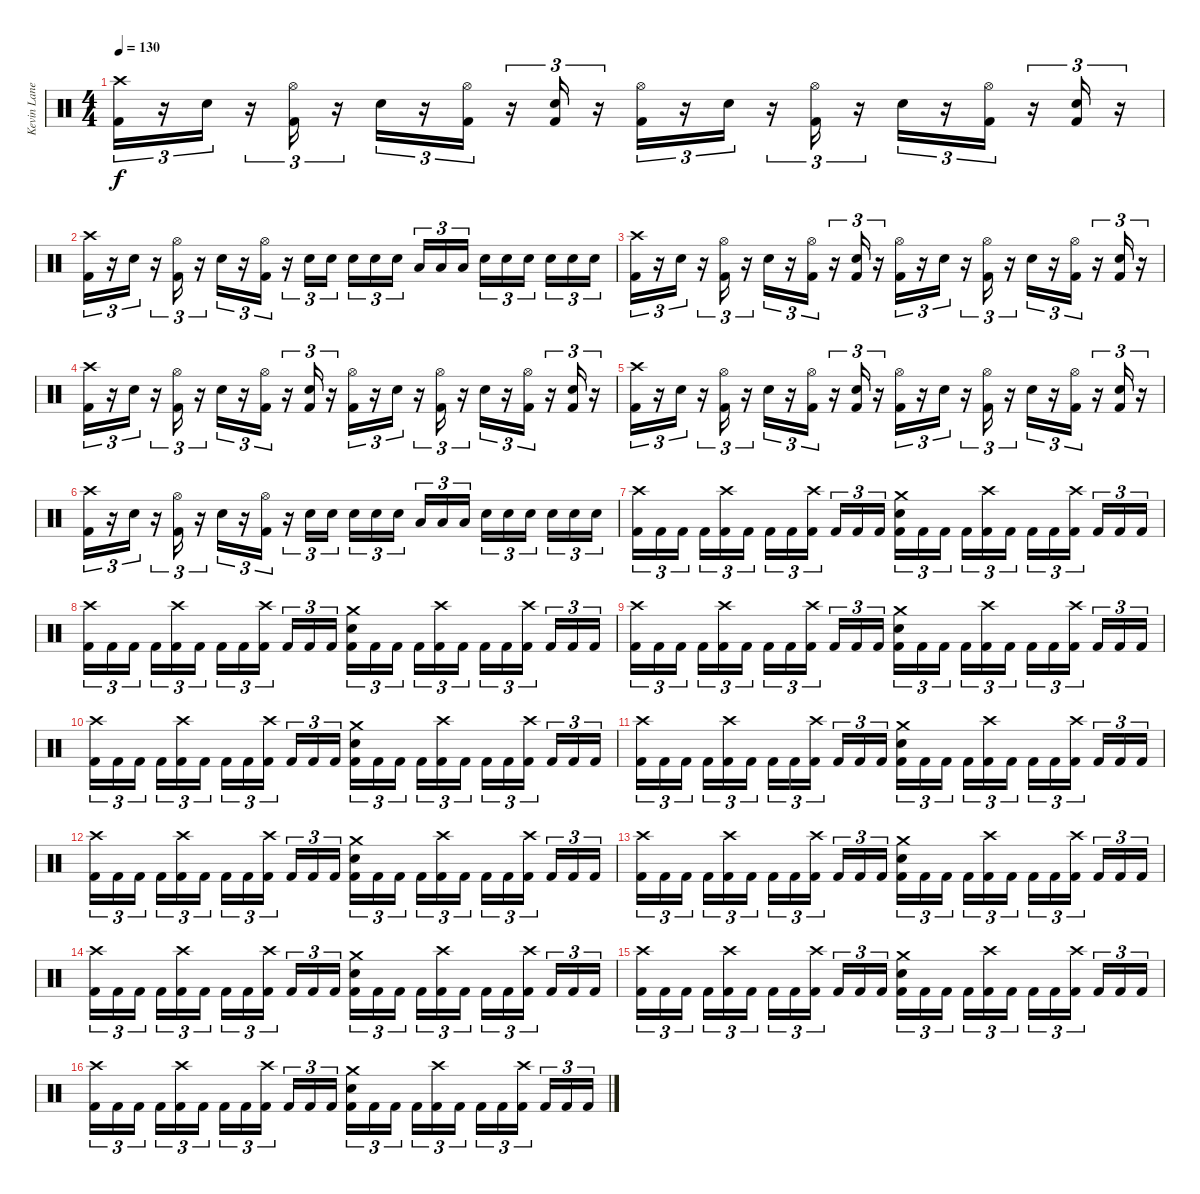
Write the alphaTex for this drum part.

\track ("Kevin Lane" "Kevin Lane") {instrument percussion}
\staff {score}
\articulation defaults
\ts (4 4)
\tempo 130
\clef neutral
\ks c
("Crash high (hit)" "Kick (hit) 2").16{tu (3 2) dy f} r.16{tu (3 2)} "Electric Snare (hit)".16{tu (3 2)} r.16{tu (3 2)} ("Hi-Hat (open)" "Kick (hit) 2").16{tu (3 2)} r.16{tu (3 2)} "Electric Snare (hit)".16{tu (3 2)} r.16{tu (3 2)} ("Hi-Hat (open)" "Kick (hit) 2").16{tu (3 2)} r.16{tu (3 2)} ("Electric Snare (hit)" "Kick (hit) 2").16{tu (3 2)} r.16{tu (3 2)} ("Hi-Hat (open)" "Kick (hit) 2").16{tu (3 2)} r.16{tu (3 2)} "Electric Snare (hit)".16{tu (3 2)} r.16{tu (3 2)} ("Hi-Hat (open)" "Kick (hit) 2").16{tu (3 2)} r.16{tu (3 2)} "Electric Snare (hit)".16{tu (3 2)} r.16{tu (3 2)} ("Hi-Hat (open)" "Kick (hit) 2").16{tu (3 2)} r.16{tu (3 2)} ("Electric Snare (hit)" "Kick (hit) 2").16{tu (3 2)} r.16{tu (3 2)} |
("Crash high (hit)" "Kick (hit) 2").16{tu (3 2)} r.16{tu (3 2)} "Electric Snare (hit)".16{tu (3 2)} r.16{tu (3 2)} ("Hi-Hat (open)" "Kick (hit) 2").16{tu (3 2)} r.16{tu (3 2)} "Electric Snare (hit)".16{tu (3 2)} r.16{tu (3 2)} ("Hi-Hat (open)" "Kick (hit) 2").16{tu (3 2)} r.16{tu (3 2)} "Electric Snare (hit)".16{tu (3 2)} "Electric Snare (hit)".16{tu (3 2)} "Electric Snare (hit)".16{tu (3 2)} "Electric Snare (hit)".16{tu (3 2)} "Electric Snare (hit)".16{tu (3 2) beam splitsecondary} "Low Tom (hit)".16{tu (3 2)} "Low Tom (hit)".16{tu (3 2)} "Low Tom (hit)".16{tu (3 2)} "Electric Snare (hit)".16{tu (3 2)} "Electric Snare (hit)".16{tu (3 2)} "Electric Snare (hit)".16{tu (3 2) beam splitsecondary} "Electric Snare (hit)".16{tu (3 2)} "Electric Snare (hit)".16{tu (3 2)} "Electric Snare (hit)".16{tu (3 2)} |
("Crash high (hit)" "Kick (hit) 2").16{tu (3 2)} r.16{tu (3 2)} "Electric Snare (hit)".16{tu (3 2)} r.16{tu (3 2)} ("Hi-Hat (open)" "Kick (hit) 2").16{tu (3 2)} r.16{tu (3 2)} "Electric Snare (hit)".16{tu (3 2)} r.16{tu (3 2)} ("Hi-Hat (open)" "Kick (hit) 2").16{tu (3 2)} r.16{tu (3 2)} ("Electric Snare (hit)" "Kick (hit) 2").16{tu (3 2)} r.16{tu (3 2)} ("Hi-Hat (open)" "Kick (hit) 2").16{tu (3 2)} r.16{tu (3 2)} "Electric Snare (hit)".16{tu (3 2)} r.16{tu (3 2)} ("Hi-Hat (open)" "Kick (hit) 2").16{tu (3 2)} r.16{tu (3 2)} "Electric Snare (hit)".16{tu (3 2)} r.16{tu (3 2)} ("Hi-Hat (open)" "Kick (hit) 2").16{tu (3 2)} r.16{tu (3 2)} ("Electric Snare (hit)" "Kick (hit) 2").16{tu (3 2)} r.16{tu (3 2)} |
("Crash high (hit)" "Kick (hit) 2").16{tu (3 2)} r.16{tu (3 2)} "Electric Snare (hit)".16{tu (3 2)} r.16{tu (3 2)} ("Hi-Hat (open)" "Kick (hit) 2").16{tu (3 2)} r.16{tu (3 2)} "Electric Snare (hit)".16{tu (3 2)} r.16{tu (3 2)} ("Hi-Hat (open)" "Kick (hit) 2").16{tu (3 2)} r.16{tu (3 2)} ("Electric Snare (hit)" "Kick (hit) 2").16{tu (3 2)} r.16{tu (3 2)} ("Hi-Hat (open)" "Kick (hit) 2").16{tu (3 2)} r.16{tu (3 2)} "Electric Snare (hit)".16{tu (3 2)} r.16{tu (3 2)} ("Hi-Hat (open)" "Kick (hit) 2").16{tu (3 2)} r.16{tu (3 2)} "Electric Snare (hit)".16{tu (3 2)} r.16{tu (3 2)} ("Hi-Hat (open)" "Kick (hit) 2").16{tu (3 2)} r.16{tu (3 2)} ("Electric Snare (hit)" "Kick (hit) 2").16{tu (3 2)} r.16{tu (3 2)} |
("Crash high (hit)" "Kick (hit) 2").16{tu (3 2)} r.16{tu (3 2)} "Electric Snare (hit)".16{tu (3 2)} r.16{tu (3 2)} ("Hi-Hat (open)" "Kick (hit) 2").16{tu (3 2)} r.16{tu (3 2)} "Electric Snare (hit)".16{tu (3 2)} r.16{tu (3 2)} ("Hi-Hat (open)" "Kick (hit) 2").16{tu (3 2)} r.16{tu (3 2)} ("Electric Snare (hit)" "Kick (hit) 2").16{tu (3 2)} r.16{tu (3 2)} ("Hi-Hat (open)" "Kick (hit) 2").16{tu (3 2)} r.16{tu (3 2)} "Electric Snare (hit)".16{tu (3 2)} r.16{tu (3 2)} ("Hi-Hat (open)" "Kick (hit) 2").16{tu (3 2)} r.16{tu (3 2)} "Electric Snare (hit)".16{tu (3 2)} r.16{tu (3 2)} ("Hi-Hat (open)" "Kick (hit) 2").16{tu (3 2)} r.16{tu (3 2)} ("Electric Snare (hit)" "Kick (hit) 2").16{tu (3 2)} r.16{tu (3 2)} |
("Crash high (hit)" "Kick (hit) 2").16{tu (3 2)} r.16{tu (3 2)} "Electric Snare (hit)".16{tu (3 2)} r.16{tu (3 2)} ("Hi-Hat (open)" "Kick (hit) 2").16{tu (3 2)} r.16{tu (3 2)} "Electric Snare (hit)".16{tu (3 2)} r.16{tu (3 2)} ("Hi-Hat (open)" "Kick (hit) 2").16{tu (3 2)} r.16{tu (3 2)} "Electric Snare (hit)".16{tu (3 2)} "Electric Snare (hit)".16{tu (3 2)} "Electric Snare (hit)".16{tu (3 2)} "Electric Snare (hit)".16{tu (3 2)} "Electric Snare (hit)".16{tu (3 2) beam splitsecondary} "Low Tom (hit)".16{tu (3 2)} "Low Tom (hit)".16{tu (3 2)} "Low Tom (hit)".16{tu (3 2)} "Electric Snare (hit)".16{tu (3 2)} "Electric Snare (hit)".16{tu (3 2)} "Electric Snare (hit)".16{tu (3 2) beam splitsecondary} "Electric Snare (hit)".16{tu (3 2)} "Electric Snare (hit)".16{tu (3 2)} "Electric Snare (hit)".16{tu (3 2)} |
("Crash high (hit)" "Kick (hit) 2").16{tu (3 2)} "Kick (hit) 2".16{tu (3 2)} "Kick (hit) 2".16{tu (3 2) beam splitsecondary} "Kick (hit) 2".16{tu (3 2)} ("Crash high (hit)" "Kick (hit) 2").16{tu (3 2)} "Kick (hit) 2".16{tu (3 2)} "Kick (hit) 2".16{tu (3 2)} "Kick (hit) 2".16{tu (3 2)} ("Crash high (hit)" "Kick (hit) 2").16{tu (3 2) beam splitsecondary} "Kick (hit) 2".16{tu (3 2)} "Kick (hit) 2".16{tu (3 2)} "Kick (hit) 2".16{tu (3 2)} ("Crash medium (hit)" "Electric Snare (hit)" "Kick (hit) 2").16{tu (3 2)} "Kick (hit) 2".16{tu (3 2)} "Kick (hit) 2".16{tu (3 2) beam splitsecondary} "Kick (hit) 2".16{tu (3 2)} ("Crash high (hit)" "Kick (hit) 2").16{tu (3 2)} "Kick (hit) 2".16{tu (3 2)} "Kick (hit) 2".16{tu (3 2)} "Kick (hit) 2".16{tu (3 2)} ("Crash high (hit)" "Kick (hit) 2").16{tu (3 2) beam splitsecondary} "Kick (hit) 2".16{tu (3 2)} "Kick (hit) 2".16{tu (3 2)} "Kick (hit) 2".16{tu (3 2)} |
("Crash high (hit)" "Kick (hit) 2").16{tu (3 2)} "Kick (hit) 2".16{tu (3 2)} "Kick (hit) 2".16{tu (3 2) beam splitsecondary} "Kick (hit) 2".16{tu (3 2)} ("Crash high (hit)" "Kick (hit) 2").16{tu (3 2)} "Kick (hit) 2".16{tu (3 2)} "Kick (hit) 2".16{tu (3 2)} "Kick (hit) 2".16{tu (3 2)} ("Crash high (hit)" "Kick (hit) 2").16{tu (3 2) beam splitsecondary} "Kick (hit) 2".16{tu (3 2)} "Kick (hit) 2".16{tu (3 2)} "Kick (hit) 2".16{tu (3 2)} ("Crash medium (hit)" "Electric Snare (hit)" "Kick (hit) 2").16{tu (3 2)} "Kick (hit) 2".16{tu (3 2)} "Kick (hit) 2".16{tu (3 2) beam splitsecondary} "Kick (hit) 2".16{tu (3 2)} ("Crash high (hit)" "Kick (hit) 2").16{tu (3 2)} "Kick (hit) 2".16{tu (3 2)} "Kick (hit) 2".16{tu (3 2)} "Kick (hit) 2".16{tu (3 2)} ("Crash high (hit)" "Kick (hit) 2").16{tu (3 2) beam splitsecondary} "Kick (hit) 2".16{tu (3 2)} "Kick (hit) 2".16{tu (3 2)} "Kick (hit) 2".16{tu (3 2)} |
("Crash high (hit)" "Kick (hit) 2").16{tu (3 2)} "Kick (hit) 2".16{tu (3 2)} "Kick (hit) 2".16{tu (3 2) beam splitsecondary} "Kick (hit) 2".16{tu (3 2)} ("Crash high (hit)" "Kick (hit) 2").16{tu (3 2)} "Kick (hit) 2".16{tu (3 2)} "Kick (hit) 2".16{tu (3 2)} "Kick (hit) 2".16{tu (3 2)} ("Crash high (hit)" "Kick (hit) 2").16{tu (3 2) beam splitsecondary} "Kick (hit) 2".16{tu (3 2)} "Kick (hit) 2".16{tu (3 2)} "Kick (hit) 2".16{tu (3 2)} ("Crash medium (hit)" "Electric Snare (hit)" "Kick (hit) 2").16{tu (3 2)} "Kick (hit) 2".16{tu (3 2)} "Kick (hit) 2".16{tu (3 2) beam splitsecondary} "Kick (hit) 2".16{tu (3 2)} ("Crash high (hit)" "Kick (hit) 2").16{tu (3 2)} "Kick (hit) 2".16{tu (3 2)} "Kick (hit) 2".16{tu (3 2)} "Kick (hit) 2".16{tu (3 2)} ("Crash high (hit)" "Kick (hit) 2").16{tu (3 2) beam splitsecondary} "Kick (hit) 2".16{tu (3 2)} "Kick (hit) 2".16{tu (3 2)} "Kick (hit) 2".16{tu (3 2)} |
("Crash high (hit)" "Kick (hit) 2").16{tu (3 2)} "Kick (hit) 2".16{tu (3 2)} "Kick (hit) 2".16{tu (3 2) beam splitsecondary} "Kick (hit) 2".16{tu (3 2)} ("Crash high (hit)" "Kick (hit) 2").16{tu (3 2)} "Kick (hit) 2".16{tu (3 2)} "Kick (hit) 2".16{tu (3 2)} "Kick (hit) 2".16{tu (3 2)} ("Crash high (hit)" "Kick (hit) 2").16{tu (3 2) beam splitsecondary} "Kick (hit) 2".16{tu (3 2)} "Kick (hit) 2".16{tu (3 2)} "Kick (hit) 2".16{tu (3 2)} ("Crash medium (hit)" "Electric Snare (hit)" "Kick (hit) 2").16{tu (3 2)} "Kick (hit) 2".16{tu (3 2)} "Kick (hit) 2".16{tu (3 2) beam splitsecondary} "Kick (hit) 2".16{tu (3 2)} ("Crash high (hit)" "Kick (hit) 2").16{tu (3 2)} "Kick (hit) 2".16{tu (3 2)} "Kick (hit) 2".16{tu (3 2)} "Kick (hit) 2".16{tu (3 2)} ("Crash high (hit)" "Kick (hit) 2").16{tu (3 2) beam splitsecondary} "Kick (hit) 2".16{tu (3 2)} "Kick (hit) 2".16{tu (3 2)} "Kick (hit) 2".16{tu (3 2)} |
("Crash high (hit)" "Kick (hit) 2").16{tu (3 2) volume 12} "Kick (hit) 2".16{tu (3 2)} "Kick (hit) 2".16{tu (3 2) beam splitsecondary} "Kick (hit) 2".16{tu (3 2)} ("Crash high (hit)" "Kick (hit) 2").16{tu (3 2)} "Kick (hit) 2".16{tu (3 2)} "Kick (hit) 2".16{tu (3 2)} "Kick (hit) 2".16{tu (3 2)} ("Crash high (hit)" "Kick (hit) 2").16{tu (3 2) beam splitsecondary} "Kick (hit) 2".16{tu (3 2)} "Kick (hit) 2".16{tu (3 2)} "Kick (hit) 2".16{tu (3 2)} ("Crash medium (hit)" "Electric Snare (hit)" "Kick (hit) 2").16{tu (3 2)} "Kick (hit) 2".16{tu (3 2)} "Kick (hit) 2".16{tu (3 2) beam splitsecondary} "Kick (hit) 2".16{tu (3 2)} ("Crash high (hit)" "Kick (hit) 2").16{tu (3 2)} "Kick (hit) 2".16{tu (3 2)} "Kick (hit) 2".16{tu (3 2)} "Kick (hit) 2".16{tu (3 2)} ("Crash high (hit)" "Kick (hit) 2").16{tu (3 2) beam splitsecondary} "Kick (hit) 2".16{tu (3 2)} "Kick (hit) 2".16{tu (3 2)} "Kick (hit) 2".16{tu (3 2)} |
("Crash high (hit)" "Kick (hit) 2").16{tu (3 2)} "Kick (hit) 2".16{tu (3 2)} "Kick (hit) 2".16{tu (3 2) beam splitsecondary} "Kick (hit) 2".16{tu (3 2)} ("Crash high (hit)" "Kick (hit) 2").16{tu (3 2)} "Kick (hit) 2".16{tu (3 2)} "Kick (hit) 2".16{tu (3 2)} "Kick (hit) 2".16{tu (3 2)} ("Crash high (hit)" "Kick (hit) 2").16{tu (3 2) beam splitsecondary} "Kick (hit) 2".16{tu (3 2)} "Kick (hit) 2".16{tu (3 2)} "Kick (hit) 2".16{tu (3 2)} ("Crash medium (hit)" "Electric Snare (hit)" "Kick (hit) 2").16{tu (3 2)} "Kick (hit) 2".16{tu (3 2)} "Kick (hit) 2".16{tu (3 2) beam splitsecondary} "Kick (hit) 2".16{tu (3 2)} ("Crash high (hit)" "Kick (hit) 2").16{tu (3 2)} "Kick (hit) 2".16{tu (3 2)} "Kick (hit) 2".16{tu (3 2)} "Kick (hit) 2".16{tu (3 2)} ("Crash high (hit)" "Kick (hit) 2").16{tu (3 2) beam splitsecondary} "Kick (hit) 2".16{tu (3 2)} "Kick (hit) 2".16{tu (3 2)} "Kick (hit) 2".16{tu (3 2)} |
("Crash high (hit)" "Kick (hit) 2").16{tu (3 2)} "Kick (hit) 2".16{tu (3 2)} "Kick (hit) 2".16{tu (3 2) beam splitsecondary} "Kick (hit) 2".16{tu (3 2)} ("Crash high (hit)" "Kick (hit) 2").16{tu (3 2)} "Kick (hit) 2".16{tu (3 2)} "Kick (hit) 2".16{tu (3 2)} "Kick (hit) 2".16{tu (3 2)} ("Crash high (hit)" "Kick (hit) 2").16{tu (3 2) beam splitsecondary} "Kick (hit) 2".16{tu (3 2)} "Kick (hit) 2".16{tu (3 2)} "Kick (hit) 2".16{tu (3 2)} ("Crash medium (hit)" "Electric Snare (hit)" "Kick (hit) 2").16{tu (3 2)} "Kick (hit) 2".16{tu (3 2)} "Kick (hit) 2".16{tu (3 2) beam splitsecondary} "Kick (hit) 2".16{tu (3 2)} ("Crash high (hit)" "Kick (hit) 2").16{tu (3 2)} "Kick (hit) 2".16{tu (3 2)} "Kick (hit) 2".16{tu (3 2)} "Kick (hit) 2".16{tu (3 2)} ("Crash high (hit)" "Kick (hit) 2").16{tu (3 2) beam splitsecondary} "Kick (hit) 2".16{tu (3 2)} "Kick (hit) 2".16{tu (3 2)} "Kick (hit) 2".16{tu (3 2)} |
("Crash high (hit)" "Kick (hit) 2").16{tu (3 2)} "Kick (hit) 2".16{tu (3 2)} "Kick (hit) 2".16{tu (3 2) beam splitsecondary} "Kick (hit) 2".16{tu (3 2)} ("Crash high (hit)" "Kick (hit) 2").16{tu (3 2)} "Kick (hit) 2".16{tu (3 2)} "Kick (hit) 2".16{tu (3 2)} "Kick (hit) 2".16{tu (3 2)} ("Crash high (hit)" "Kick (hit) 2").16{tu (3 2) beam splitsecondary} "Kick (hit) 2".16{tu (3 2)} "Kick (hit) 2".16{tu (3 2)} "Kick (hit) 2".16{tu (3 2)} ("Crash medium (hit)" "Electric Snare (hit)" "Kick (hit) 2").16{tu (3 2)} "Kick (hit) 2".16{tu (3 2)} "Kick (hit) 2".16{tu (3 2) beam splitsecondary} "Kick (hit) 2".16{tu (3 2)} ("Crash high (hit)" "Kick (hit) 2").16{tu (3 2)} "Kick (hit) 2".16{tu (3 2)} "Kick (hit) 2".16{tu (3 2)} "Kick (hit) 2".16{tu (3 2)} ("Crash high (hit)" "Kick (hit) 2").16{tu (3 2) beam splitsecondary} "Kick (hit) 2".16{tu (3 2)} "Kick (hit) 2".16{tu (3 2)} "Kick (hit) 2".16{tu (3 2)} |
("Crash high (hit)" "Kick (hit) 2").16{tu (3 2) volume 8} "Kick (hit) 2".16{tu (3 2)} "Kick (hit) 2".16{tu (3 2) beam splitsecondary} "Kick (hit) 2".16{tu (3 2)} ("Crash high (hit)" "Kick (hit) 2").16{tu (3 2)} "Kick (hit) 2".16{tu (3 2)} "Kick (hit) 2".16{tu (3 2)} "Kick (hit) 2".16{tu (3 2)} ("Crash high (hit)" "Kick (hit) 2").16{tu (3 2) beam splitsecondary} "Kick (hit) 2".16{tu (3 2)} "Kick (hit) 2".16{tu (3 2)} "Kick (hit) 2".16{tu (3 2)} ("Crash medium (hit)" "Electric Snare (hit)" "Kick (hit) 2").16{tu (3 2)} "Kick (hit) 2".16{tu (3 2)} "Kick (hit) 2".16{tu (3 2) beam splitsecondary} "Kick (hit) 2".16{tu (3 2)} ("Crash high (hit)" "Kick (hit) 2").16{tu (3 2)} "Kick (hit) 2".16{tu (3 2)} "Kick (hit) 2".16{tu (3 2)} "Kick (hit) 2".16{tu (3 2)} ("Crash high (hit)" "Kick (hit) 2").16{tu (3 2) beam splitsecondary} "Kick (hit) 2".16{tu (3 2)} "Kick (hit) 2".16{tu (3 2)} "Kick (hit) 2".16{tu (3 2)} |
("Crash high (hit)" "Kick (hit) 2").16{tu (3 2)} "Kick (hit) 2".16{tu (3 2)} "Kick (hit) 2".16{tu (3 2) beam splitsecondary} "Kick (hit) 2".16{tu (3 2)} ("Crash high (hit)" "Kick (hit) 2").16{tu (3 2)} "Kick (hit) 2".16{tu (3 2)} "Kick (hit) 2".16{tu (3 2)} "Kick (hit) 2".16{tu (3 2)} ("Crash high (hit)" "Kick (hit) 2").16{tu (3 2) beam splitsecondary} "Kick (hit) 2".16{tu (3 2)} "Kick (hit) 2".16{tu (3 2)} "Kick (hit) 2".16{tu (3 2)} ("Crash medium (hit)" "Electric Snare (hit)" "Kick (hit) 2").16{tu (3 2)} "Kick (hit) 2".16{tu (3 2)} "Kick (hit) 2".16{tu (3 2) beam splitsecondary} "Kick (hit) 2".16{tu (3 2)} ("Crash high (hit)" "Kick (hit) 2").16{tu (3 2)} "Kick (hit) 2".16{tu (3 2)} "Kick (hit) 2".16{tu (3 2)} "Kick (hit) 2".16{tu (3 2)} ("Crash high (hit)" "Kick (hit) 2").16{tu (3 2) beam splitsecondary} "Kick (hit) 2".16{tu (3 2)} "Kick (hit) 2".16{tu (3 2)} "Kick (hit) 2".16{tu (3 2)}
